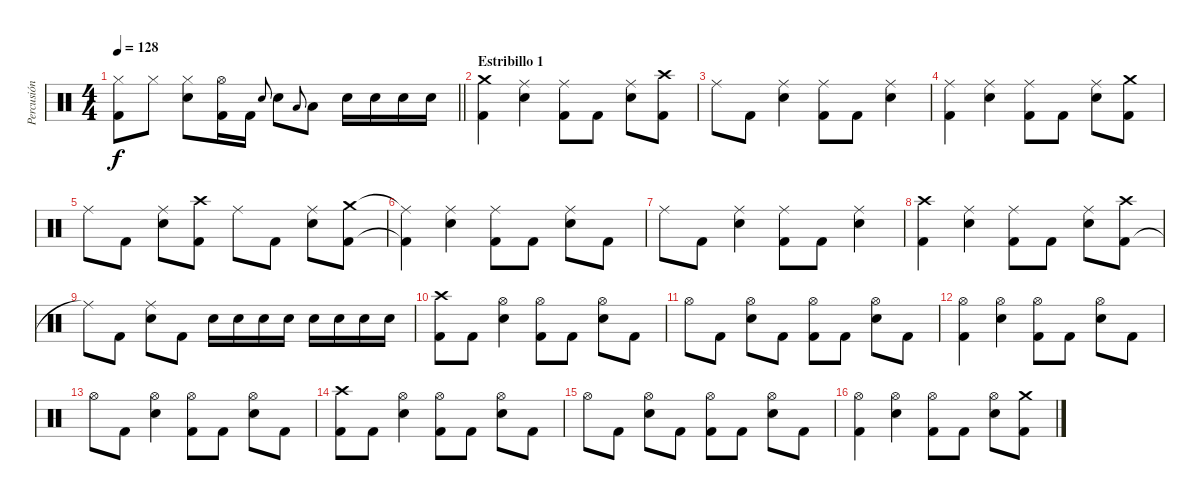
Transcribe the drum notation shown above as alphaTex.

\track ("Percusión" "Percusión") {instrument percussion}
\staff {score}
\articulation defaults
\ts (4 4)
\tempo 128
\clef neutral
\barLineRight lightlight
\ks c
("Kick (hit) 2" "Hi-Hat (closed)").8{dy f} "Hi-Hat (closed)".8 ("Electric Snare (hit)" "Hi-Hat (closed)").8 ("Kick (hit) 2" "Hi-Hat (open)").16 "Kick (hit) 2".16 "Electric Snare (hit)".8{gr onbeat} "Electric Snare (hit)".8 "Low Tom (hit)".8{gr onbeat} "Low Tom (hit)".8 "Electric Snare (hit)".16 "Electric Snare (hit)".16 "Electric Snare (hit)".16 "Electric Snare (hit)".16 |
\section ("" "Estribillo 1")
("Kick (hit) 2" "Crash medium (hit)").4 ("Electric Snare (hit)" "Ride (middle)").4 ("Kick (hit) 2" "Ride (middle)").8 "Kick (hit) 2".8 ("Electric Snare (hit)" "Ride (middle)").8 ("Kick (hit) 2" "Crash high (hit)").8 |
"Ride (middle)".8 "Kick (hit) 2".8 ("Electric Snare (hit)" "Ride (middle)").4 ("Kick (hit) 2" "Ride (middle)").8 "Kick (hit) 2".8 ("Electric Snare (hit)" "Ride (middle)").4 |
("Kick (hit) 2" "Ride (middle)").4 ("Electric Snare (hit)" "Ride (middle)").4 ("Kick (hit) 2" "Ride (middle)").8 "Kick (hit) 2".8 ("Electric Snare (hit)" "Ride (middle)").8 ("Kick (hit) 2" "Crash medium (hit)").8 |
"Ride (middle)".8 "Kick (hit) 2".8 ("Electric Snare (hit)" "Ride (middle)").8 ("Kick (hit) 2" "Crash high (hit)").8 "Ride (middle)".8 "Kick (hit) 2".8 ("Electric Snare (hit)" "Ride (middle)").8 ("Kick (hit) 2" "Crash medium (hit)").8 |
("Kick (hit) 2"{t} "Ride (middle)"{t}).4 ("Electric Snare (hit)" "Ride (middle)").4 ("Kick (hit) 2" "Ride (middle)").8 "Kick (hit) 2".8 ("Electric Snare (hit)" "Ride (middle)").8 "Kick (hit) 2".8 |
"Ride (middle)".8 "Kick (hit) 2".8 ("Electric Snare (hit)" "Ride (middle)").4 ("Kick (hit) 2" "Ride (middle)").8 "Kick (hit) 2".8 ("Electric Snare (hit)" "Ride (middle)").4 |
("Kick (hit) 2" "Crash high (hit)").4 ("Electric Snare (hit)" "Ride (middle)").4 ("Kick (hit) 2" "Ride (middle)").8 "Kick (hit) 2".8 ("Electric Snare (hit)" "Ride (middle)").8 ("Kick (hit) 2" "Crash high (hit)").8 |
"Ride (middle)"{t}.8 "Kick (hit) 2".8 ("Electric Snare (hit)" "Ride (middle)").8 "Kick (hit) 2".8 "Electric Snare (hit)".16 "Electric Snare (hit)".16 "Electric Snare (hit)".16 "Electric Snare (hit)".16 "Electric Snare (hit)".16 "Electric Snare (hit)".16 "Electric Snare (hit)".16 "Electric Snare (hit)".16 |
("Kick (hit) 2" "Crash high (hit)").8 "Kick (hit) 2".8 ("Electric Snare (hit)" "Hi-Hat (open)").4 ("Kick (hit) 2" "Hi-Hat (open)").8 "Kick (hit) 2".8 ("Electric Snare (hit)" "Hi-Hat (open)").8 "Kick (hit) 2".8 |
"Hi-Hat (open)".8 "Kick (hit) 2".8 ("Electric Snare (hit)" "Hi-Hat (open)").8 "Kick (hit) 2".8 ("Kick (hit) 2" "Hi-Hat (open)").8 "Kick (hit) 2".8 ("Electric Snare (hit)" "Hi-Hat (open)").8 "Kick (hit) 2".8 |
("Kick (hit) 2" "Hi-Hat (open)").4 ("Electric Snare (hit)" "Hi-Hat (open)").4 ("Kick (hit) 2" "Hi-Hat (open)").8 "Kick (hit) 2".8 ("Electric Snare (hit)" "Hi-Hat (open)").8 "Kick (hit) 2".8 |
"Hi-Hat (open)".8 "Kick (hit) 2".8 ("Electric Snare (hit)" "Hi-Hat (open)").4 ("Kick (hit) 2" "Hi-Hat (open)").8 "Kick (hit) 2".8 ("Electric Snare (hit)" "Hi-Hat (open)").8 "Kick (hit) 2".8 |
("Kick (hit) 2" "Crash high (hit)").8 "Kick (hit) 2".8 ("Electric Snare (hit)" "Hi-Hat (open)").4 ("Kick (hit) 2" "Hi-Hat (open)").8 "Kick (hit) 2".8 ("Electric Snare (hit)" "Hi-Hat (open)").8 "Kick (hit) 2".8 |
"Hi-Hat (open)".8 "Kick (hit) 2".8 ("Electric Snare (hit)" "Hi-Hat (open)").8 "Kick (hit) 2".8 ("Kick (hit) 2" "Hi-Hat (open)").8 "Kick (hit) 2".8 ("Electric Snare (hit)" "Hi-Hat (open)").8 "Kick (hit) 2".8 |
("Kick (hit) 2" "Hi-Hat (open)").4 ("Electric Snare (hit)" "Hi-Hat (open)").4 ("Kick (hit) 2" "Hi-Hat (open)").8 "Kick (hit) 2".8 ("Electric Snare (hit)" "Hi-Hat (open)").8 ("Kick (hit) 2" "Crash medium (hit)").8
